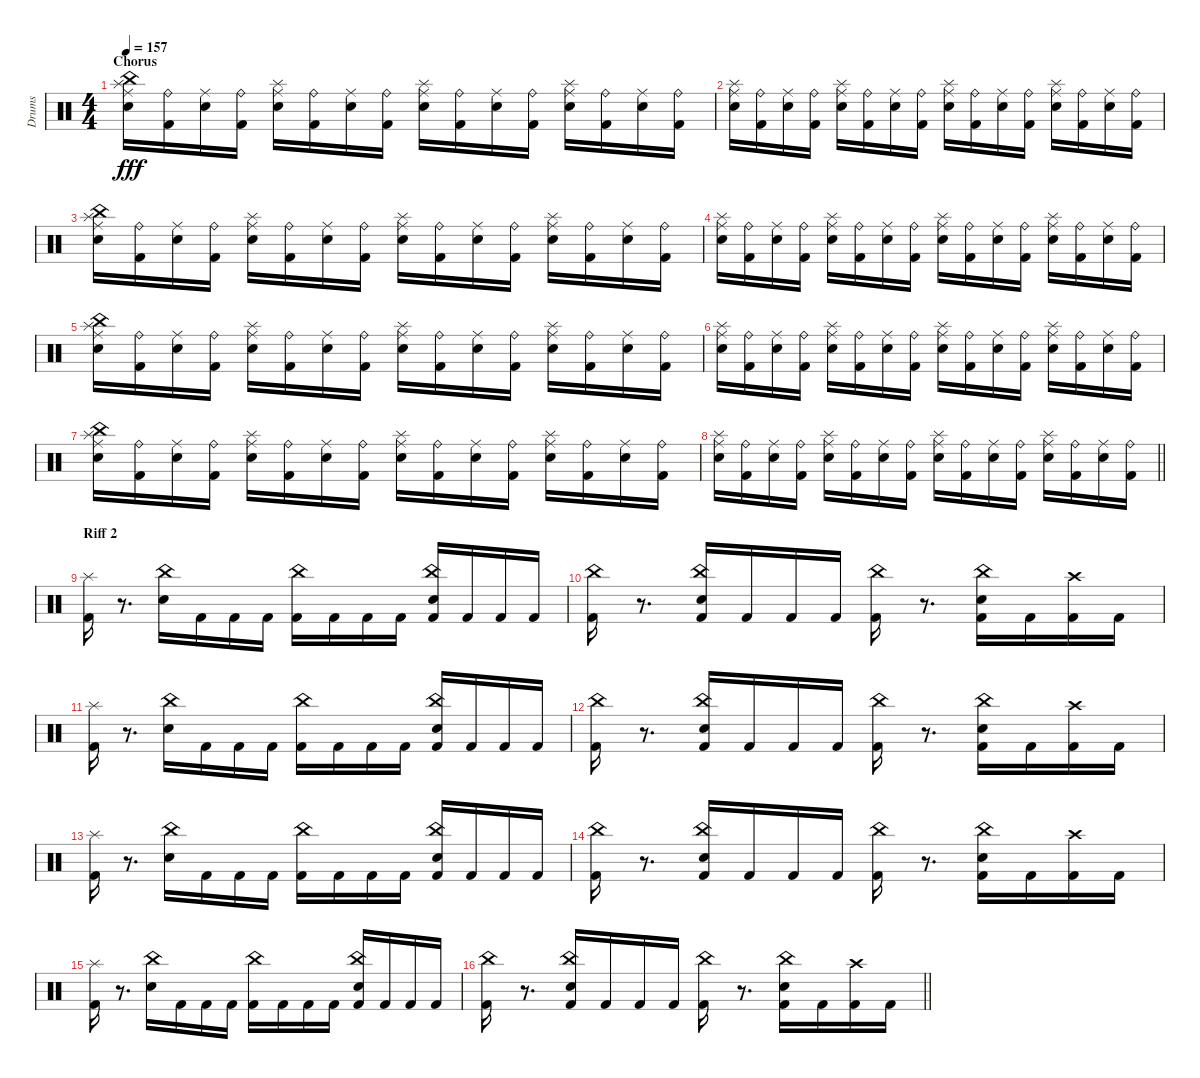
\track ("Drums" "Drums") {instrument percussion}
\staff {score}
\articulation defaults
\ts (4 4)
\section ("" "Chorus")
\tempo 157
\clef neutral
\ks c
("Snare (hit) 2" "Ride (middle)" "China (hit)" "Splash (hit)").16{dy fff} ("Kick (hit) 2" "Ride (bell)").16 ("Snare (hit) 2" "Ride (middle)").16 ("Kick (hit) 2" "Ride (bell)").16 ("Snare (hit) 2" "Ride (middle)" "Splash (hit)").16 ("Kick (hit) 2" "Ride (bell)").16 ("Snare (hit) 2" "Ride (middle)").16 ("Kick (hit) 2" "Ride (bell)").16 ("Snare (hit) 2" "Ride (middle)" "Splash (hit)").16 ("Kick (hit) 2" "Ride (bell)").16 ("Snare (hit) 2" "Ride (middle)").16 ("Kick (hit) 2" "Ride (bell)").16 ("Snare (hit) 2" "Ride (middle)" "Splash (hit)").16 ("Kick (hit) 2" "Ride (bell)").16 ("Snare (hit) 2" "Ride (middle)").16 ("Kick (hit) 2" "Ride (bell)").16 |
("Snare (hit) 2" "Ride (middle)" "Splash (hit)").16 ("Kick (hit) 2" "Ride (bell)").16 ("Snare (hit) 2" "Ride (middle)").16 ("Kick (hit) 2" "Ride (bell)").16 ("Snare (hit) 2" "Ride (middle)" "Splash (hit)").16 ("Kick (hit) 2" "Ride (bell)").16 ("Snare (hit) 2" "Ride (middle)").16 ("Kick (hit) 2" "Ride (bell)").16 ("Snare (hit) 2" "Ride (middle)" "Splash (hit)").16 ("Kick (hit) 2" "Ride (bell)").16 ("Snare (hit) 2" "Ride (middle)").16 ("Kick (hit) 2" "Ride (bell)").16 ("Snare (hit) 2" "Ride (middle)" "Splash (hit)").16 ("Kick (hit) 2" "Ride (bell)").16 ("Snare (hit) 2" "Ride (middle)").16 ("Kick (hit) 2" "Ride (bell)").16 |
("Snare (hit) 2" "Ride (middle)" "China (hit)" "Splash (hit)").16 ("Kick (hit) 2" "Ride (bell)").16 ("Snare (hit) 2" "Ride (middle)").16 ("Kick (hit) 2" "Ride (bell)").16 ("Snare (hit) 2" "Ride (middle)" "Splash (hit)").16 ("Kick (hit) 2" "Ride (bell)").16 ("Snare (hit) 2" "Ride (middle)").16 ("Kick (hit) 2" "Ride (bell)").16 ("Snare (hit) 2" "Ride (middle)" "Splash (hit)").16 ("Kick (hit) 2" "Ride (bell)").16 ("Snare (hit) 2" "Ride (middle)").16 ("Kick (hit) 2" "Ride (bell)").16 ("Snare (hit) 2" "Ride (middle)" "Splash (hit)").16 ("Kick (hit) 2" "Ride (bell)").16 ("Snare (hit) 2" "Ride (middle)").16 ("Kick (hit) 2" "Ride (bell)").16 |
("Snare (hit) 2" "Ride (middle)" "Splash (hit)").16 ("Kick (hit) 2" "Ride (bell)").16 ("Snare (hit) 2" "Ride (middle)").16 ("Kick (hit) 2" "Ride (bell)").16 ("Snare (hit) 2" "Ride (middle)" "Splash (hit)").16 ("Kick (hit) 2" "Ride (bell)").16 ("Snare (hit) 2" "Ride (middle)").16 ("Kick (hit) 2" "Ride (bell)").16 ("Snare (hit) 2" "Ride (middle)" "Splash (hit)").16 ("Kick (hit) 2" "Ride (bell)").16 ("Snare (hit) 2" "Ride (middle)").16 ("Kick (hit) 2" "Ride (bell)").16 ("Snare (hit) 2" "Ride (middle)" "Splash (hit)").16 ("Kick (hit) 2" "Ride (bell)").16 ("Snare (hit) 2" "Ride (middle)").16 ("Kick (hit) 2" "Ride (bell)").16 |
("Snare (hit) 2" "Ride (middle)" "China (hit)" "Splash (hit)").16 ("Kick (hit) 2" "Ride (bell)").16 ("Snare (hit) 2" "Ride (middle)").16 ("Kick (hit) 2" "Ride (bell)").16 ("Snare (hit) 2" "Ride (middle)" "Splash (hit)").16 ("Kick (hit) 2" "Ride (bell)").16 ("Snare (hit) 2" "Ride (middle)").16 ("Kick (hit) 2" "Ride (bell)").16 ("Snare (hit) 2" "Ride (middle)" "Splash (hit)").16 ("Kick (hit) 2" "Ride (bell)").16 ("Snare (hit) 2" "Ride (middle)").16 ("Kick (hit) 2" "Ride (bell)").16 ("Snare (hit) 2" "Ride (middle)" "Splash (hit)").16 ("Kick (hit) 2" "Ride (bell)").16 ("Snare (hit) 2" "Ride (middle)").16 ("Kick (hit) 2" "Ride (bell)").16 |
("Snare (hit) 2" "Ride (middle)" "Splash (hit)").16 ("Kick (hit) 2" "Ride (bell)").16 ("Snare (hit) 2" "Ride (middle)").16 ("Kick (hit) 2" "Ride (bell)").16 ("Snare (hit) 2" "Ride (middle)" "Splash (hit)").16 ("Kick (hit) 2" "Ride (bell)").16 ("Snare (hit) 2" "Ride (middle)").16 ("Kick (hit) 2" "Ride (bell)").16 ("Snare (hit) 2" "Ride (middle)" "Splash (hit)").16 ("Kick (hit) 2" "Ride (bell)").16 ("Snare (hit) 2" "Ride (middle)").16 ("Kick (hit) 2" "Ride (bell)").16 ("Snare (hit) 2" "Ride (middle)" "Splash (hit)").16 ("Kick (hit) 2" "Ride (bell)").16 ("Snare (hit) 2" "Ride (middle)").16 ("Kick (hit) 2" "Ride (bell)").16 |
("Snare (hit) 2" "Ride (middle)" "China (hit)" "Splash (hit)").16 ("Kick (hit) 2" "Ride (bell)").16 ("Snare (hit) 2" "Ride (middle)").16 ("Kick (hit) 2" "Ride (bell)").16 ("Snare (hit) 2" "Ride (middle)" "Splash (hit)").16 ("Kick (hit) 2" "Ride (bell)").16 ("Snare (hit) 2" "Ride (middle)").16 ("Kick (hit) 2" "Ride (bell)").16 ("Snare (hit) 2" "Ride (middle)" "Splash (hit)").16 ("Kick (hit) 2" "Ride (bell)").16 ("Snare (hit) 2" "Ride (middle)").16 ("Kick (hit) 2" "Ride (bell)").16 ("Snare (hit) 2" "Ride (middle)" "Splash (hit)").16 ("Kick (hit) 2" "Ride (bell)").16 ("Snare (hit) 2" "Ride (middle)").16 ("Kick (hit) 2" "Ride (bell)").16 |
\barLineRight lightlight
("Snare (hit) 2" "Ride (middle)" "Splash (hit)").16 ("Kick (hit) 2" "Ride (bell)").16 ("Snare (hit) 2" "Ride (middle)").16 ("Kick (hit) 2" "Ride (bell)").16 ("Snare (hit) 2" "Ride (middle)" "Splash (hit)").16 ("Kick (hit) 2" "Ride (bell)").16 ("Snare (hit) 2" "Ride (middle)").16 ("Kick (hit) 2" "Ride (bell)").16 ("Snare (hit) 2" "Ride (middle)" "Splash (hit)").16 ("Kick (hit) 2" "Ride (bell)").16 ("Snare (hit) 2" "Ride (middle)").16 ("Kick (hit) 2" "Ride (bell)").16 ("Snare (hit) 2" "Ride (middle)" "Splash (hit)").16 ("Kick (hit) 2" "Ride (bell)").16 ("Snare (hit) 2" "Ride (middle)").16 ("Kick (hit) 2" "Ride (bell)").16 |
\section ("" "Riff 2")
("Kick (hit) 2" "Splash (hit)").16 r.8{d} ("Snare (hit) 2" "China (hit)").16 "Kick (hit) 2".16 "Kick (hit) 2".16 "Kick (hit) 2".16 ("Kick (hit) 2" "China (hit)").16 "Kick (hit) 2".16 "Kick (hit) 2".16 "Kick (hit) 2".16 ("Kick (hit) 2" "Snare (hit) 2" "China (hit)").16 "Kick (hit) 2".16 "Kick (hit) 2".16 "Kick (hit) 2".16 |
("Kick (hit) 2" "China (hit)").16 r.8{d} ("Kick (hit) 2" "Snare (hit) 2" "China (hit)").16 "Kick (hit) 2".16 "Kick (hit) 2".16 "Kick (hit) 2".16 ("Kick (hit) 2" "China (hit)").16 r.8{d} ("Kick (hit) 2" "Snare (hit) 2" "China (hit)").16 "Kick (hit) 2".16 ("Kick (hit) 2" "Crash high (hit)").16 "Kick (hit) 2".16 |
("Kick (hit) 2" "Splash (hit)").16 r.8{d} ("Snare (hit) 2" "China (hit)").16 "Kick (hit) 2".16 "Kick (hit) 2".16 "Kick (hit) 2".16 ("Kick (hit) 2" "China (hit)").16 "Kick (hit) 2".16 "Kick (hit) 2".16 "Kick (hit) 2".16 ("Kick (hit) 2" "Snare (hit) 2" "China (hit)").16 "Kick (hit) 2".16 "Kick (hit) 2".16 "Kick (hit) 2".16 |
("Kick (hit) 2" "China (hit)").16 r.8{d} ("Kick (hit) 2" "Snare (hit) 2" "China (hit)").16 "Kick (hit) 2".16 "Kick (hit) 2".16 "Kick (hit) 2".16 ("Kick (hit) 2" "China (hit)").16 r.8{d} ("Kick (hit) 2" "Snare (hit) 2" "China (hit)").16 "Kick (hit) 2".16 ("Kick (hit) 2" "Crash high (hit)").16 "Kick (hit) 2".16 |
("Kick (hit) 2" "Splash (hit)").16 r.8{d} ("Snare (hit) 2" "China (hit)").16 "Kick (hit) 2".16 "Kick (hit) 2".16 "Kick (hit) 2".16 ("Kick (hit) 2" "China (hit)").16 "Kick (hit) 2".16 "Kick (hit) 2".16 "Kick (hit) 2".16 ("Kick (hit) 2" "Snare (hit) 2" "China (hit)").16 "Kick (hit) 2".16 "Kick (hit) 2".16 "Kick (hit) 2".16 |
("Kick (hit) 2" "China (hit)").16 r.8{d} ("Kick (hit) 2" "Snare (hit) 2" "China (hit)").16 "Kick (hit) 2".16 "Kick (hit) 2".16 "Kick (hit) 2".16 ("Kick (hit) 2" "China (hit)").16 r.8{d} ("Kick (hit) 2" "Snare (hit) 2" "China (hit)").16 "Kick (hit) 2".16 ("Kick (hit) 2" "Crash high (hit)").16 "Kick (hit) 2".16 |
("Kick (hit) 2" "Splash (hit)").16 r.8{d} ("Snare (hit) 2" "China (hit)").16 "Kick (hit) 2".16 "Kick (hit) 2".16 "Kick (hit) 2".16 ("Kick (hit) 2" "China (hit)").16 "Kick (hit) 2".16 "Kick (hit) 2".16 "Kick (hit) 2".16 ("Kick (hit) 2" "Snare (hit) 2" "China (hit)").16 "Kick (hit) 2".16 "Kick (hit) 2".16 "Kick (hit) 2".16 |
\barLineRight lightlight
("Kick (hit) 2" "China (hit)").16 r.8{d} ("Kick (hit) 2" "Snare (hit) 2" "China (hit)").16 "Kick (hit) 2".16 "Kick (hit) 2".16 "Kick (hit) 2".16 ("Kick (hit) 2" "China (hit)").16 r.8{d} ("Kick (hit) 2" "Snare (hit) 2" "China (hit)").16 "Kick (hit) 2".16 ("Kick (hit) 2" "Crash high (hit)").16 "Kick (hit) 2".16
